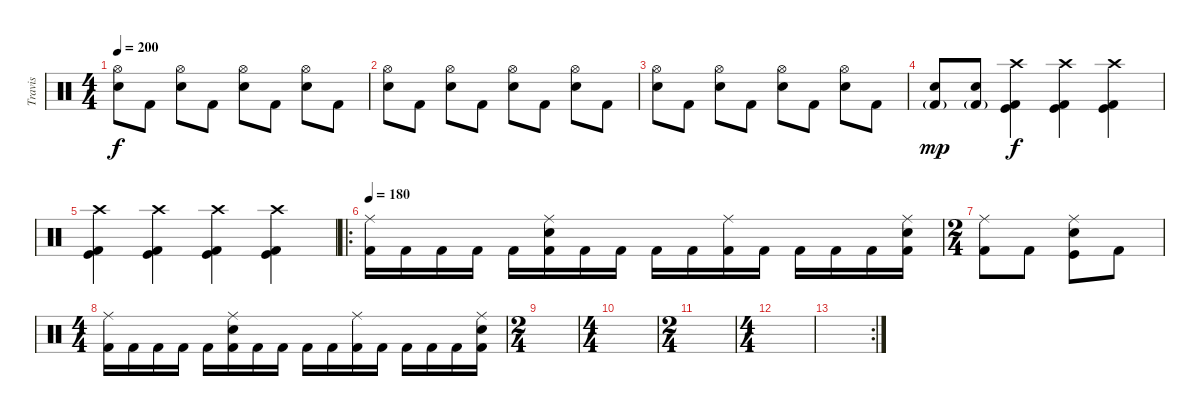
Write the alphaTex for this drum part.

\track ("Travis" "Travis") {instrument percussion}
\staff {score}
\articulation defaults
\ts (4 4)
\tempo 200
\clef neutral
\ks c
("Electric Snare (hit)" "Hi-Hat (open)").8{dy f} "Kick (hit) 2".8 ("Electric Snare (hit)" "Hi-Hat (open)").8 "Kick (hit) 2".8 ("Electric Snare (hit)" "Hi-Hat (open)").8 "Kick (hit) 2".8 ("Electric Snare (hit)" "Hi-Hat (open)").8 "Kick (hit) 2".8 |
("Electric Snare (hit)" "Hi-Hat (open)").8 "Kick (hit) 2".8 ("Electric Snare (hit)" "Hi-Hat (open)").8 "Kick (hit) 2".8 ("Electric Snare (hit)" "Hi-Hat (open)").8 "Kick (hit) 2".8 ("Electric Snare (hit)" "Hi-Hat (open)").8 "Kick (hit) 2".8 |
("Electric Snare (hit)" "Hi-Hat (open)").8 "Kick (hit) 2".8 ("Electric Snare (hit)" "Hi-Hat (open)").8 "Kick (hit) 2".8 ("Electric Snare (hit)" "Hi-Hat (open)").8 "Kick (hit) 2".8 ("Electric Snare (hit)" "Hi-Hat (open)").8 "Kick (hit) 2".8 |
("Kick (hit) 2"{g} "Electric Snare (hit)").8{dy mp} ("Kick (hit) 2"{g} "Electric Snare (hit)").8 ("Kick (hit)" "Kick (hit) 2" "Crash high (hit)").4{dy f} ("Kick (hit)" "Kick (hit) 2" "Crash high (hit)").4 ("Kick (hit)" "Kick (hit) 2" "Crash high (hit)").4 |
("Kick (hit)" "Kick (hit) 2" "Crash high (hit)").4 ("Kick (hit)" "Kick (hit) 2" "Crash high (hit)").4 ("Kick (hit)" "Kick (hit) 2" "Crash high (hit)").4 ("Kick (hit)" "Kick (hit) 2" "Crash high (hit)").4 |
\ro
\tempo 180
("Ride (middle)" "Kick (hit) 2").16 "Kick (hit) 2".16 "Kick (hit) 2".16 "Kick (hit) 2".16 "Kick (hit) 2".16 ("Ride (middle)" "Electric Snare (hit)" "Kick (hit) 2").16 "Kick (hit) 2".16 "Kick (hit) 2".16 "Kick (hit) 2".16 "Kick (hit) 2".16 ("Ride (middle)" "Kick (hit) 2").16 "Kick (hit) 2".16 "Kick (hit) 2".16 "Kick (hit) 2".16 "Kick (hit) 2".16 ("Ride (middle)" "Electric Snare (hit)" "Kick (hit) 2").16 |
\ts (2 4)
("Ride (middle)" "Kick (hit) 2").8 "Kick (hit) 2".8 ("Kick (hit)" "Ride (middle)" "Electric Snare (hit)").8 "Kick (hit) 2".8 |
\ts (4 4)
("Ride (middle)" "Kick (hit) 2").16 "Kick (hit) 2".16 "Kick (hit) 2".16 "Kick (hit) 2".16 "Kick (hit) 2".16 ("Ride (middle)" "Electric Snare (hit)" "Kick (hit) 2").16 "Kick (hit) 2".16 "Kick (hit) 2".16 "Kick (hit) 2".16 "Kick (hit) 2".16 ("Ride (middle)" "Kick (hit) 2").16 "Kick (hit) 2".16 "Kick (hit) 2".16 "Kick (hit) 2".16 "Kick (hit) 2".16 ("Ride (middle)" "Electric Snare (hit)" "Kick (hit) 2").16 |
\ts (2 4)
|
\ts (4 4)
|
\ts (2 4)
|
\ts (4 4)
|
\rc 2
